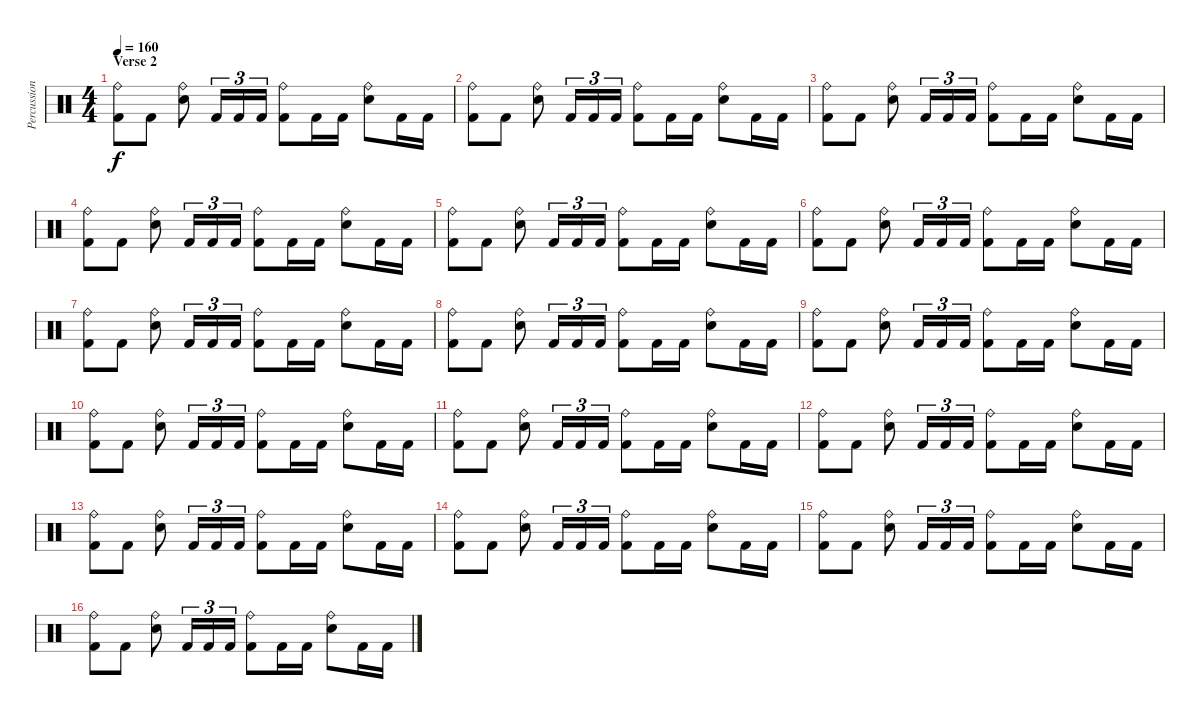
\track ("Percussion" "Percussion") {instrument percussion}
\staff {score}
\articulation defaults
\ts (4 4)
\section ("" "Verse 2")
\tempo 160
\clef neutral
\ks c
("Kick (hit) 2" "Ride (bell)").8{dy f} "Kick (hit) 2".8 ("Electric Snare (hit)" "Ride (bell)").8 "Kick (hit) 2".16{tu (3 2)} "Kick (hit) 2".16{tu (3 2)} "Kick (hit) 2".16{tu (3 2)} ("Kick (hit) 2" "Ride (bell)").8 "Kick (hit) 2".16 "Kick (hit) 2".16 ("Electric Snare (hit)" "Ride (bell)").8 "Kick (hit) 2".16 "Kick (hit) 2".16 |
("Kick (hit) 2" "Ride (bell)").8 "Kick (hit) 2".8 ("Electric Snare (hit)" "Ride (bell)").8 "Kick (hit) 2".16{tu (3 2)} "Kick (hit) 2".16{tu (3 2)} "Kick (hit) 2".16{tu (3 2)} ("Kick (hit) 2" "Ride (bell)").8 "Kick (hit) 2".16 "Kick (hit) 2".16 ("Electric Snare (hit)" "Ride (bell)").8 "Kick (hit) 2".16 "Kick (hit) 2".16 |
("Kick (hit) 2" "Ride (bell)").8 "Kick (hit) 2".8 ("Electric Snare (hit)" "Ride (bell)").8 "Kick (hit) 2".16{tu (3 2)} "Kick (hit) 2".16{tu (3 2)} "Kick (hit) 2".16{tu (3 2)} ("Kick (hit) 2" "Ride (bell)").8 "Kick (hit) 2".16 "Kick (hit) 2".16 ("Electric Snare (hit)" "Ride (bell)").8 "Kick (hit) 2".16 "Kick (hit) 2".16 |
("Kick (hit) 2" "Ride (bell)").8 "Kick (hit) 2".8 ("Electric Snare (hit)" "Ride (bell)").8 "Kick (hit) 2".16{tu (3 2)} "Kick (hit) 2".16{tu (3 2)} "Kick (hit) 2".16{tu (3 2)} ("Kick (hit) 2" "Ride (bell)").8 "Kick (hit) 2".16 "Kick (hit) 2".16 ("Electric Snare (hit)" "Ride (bell)").8 "Kick (hit) 2".16 "Kick (hit) 2".16 |
("Kick (hit) 2" "Ride (bell)").8 "Kick (hit) 2".8 ("Electric Snare (hit)" "Ride (bell)").8 "Kick (hit) 2".16{tu (3 2)} "Kick (hit) 2".16{tu (3 2)} "Kick (hit) 2".16{tu (3 2)} ("Kick (hit) 2" "Ride (bell)").8 "Kick (hit) 2".16 "Kick (hit) 2".16 ("Electric Snare (hit)" "Ride (bell)").8 "Kick (hit) 2".16 "Kick (hit) 2".16 |
("Kick (hit) 2" "Ride (bell)").8 "Kick (hit) 2".8 ("Electric Snare (hit)" "Ride (bell)").8 "Kick (hit) 2".16{tu (3 2)} "Kick (hit) 2".16{tu (3 2)} "Kick (hit) 2".16{tu (3 2)} ("Kick (hit) 2" "Ride (bell)").8 "Kick (hit) 2".16 "Kick (hit) 2".16 ("Electric Snare (hit)" "Ride (bell)").8 "Kick (hit) 2".16 "Kick (hit) 2".16 |
("Kick (hit) 2" "Ride (bell)").8 "Kick (hit) 2".8 ("Electric Snare (hit)" "Ride (bell)").8 "Kick (hit) 2".16{tu (3 2)} "Kick (hit) 2".16{tu (3 2)} "Kick (hit) 2".16{tu (3 2)} ("Kick (hit) 2" "Ride (bell)").8 "Kick (hit) 2".16 "Kick (hit) 2".16 ("Electric Snare (hit)" "Ride (bell)").8 "Kick (hit) 2".16 "Kick (hit) 2".16 |
("Kick (hit) 2" "Ride (bell)").8 "Kick (hit) 2".8 ("Electric Snare (hit)" "Ride (bell)").8 "Kick (hit) 2".16{tu (3 2)} "Kick (hit) 2".16{tu (3 2)} "Kick (hit) 2".16{tu (3 2)} ("Kick (hit) 2" "Ride (bell)").8 "Kick (hit) 2".16 "Kick (hit) 2".16 ("Electric Snare (hit)" "Ride (bell)").8 "Kick (hit) 2".16 "Kick (hit) 2".16 |
("Kick (hit) 2" "Ride (bell)").8 "Kick (hit) 2".8 ("Electric Snare (hit)" "Ride (bell)").8 "Kick (hit) 2".16{tu (3 2)} "Kick (hit) 2".16{tu (3 2)} "Kick (hit) 2".16{tu (3 2)} ("Kick (hit) 2" "Ride (bell)").8 "Kick (hit) 2".16 "Kick (hit) 2".16 ("Electric Snare (hit)" "Ride (bell)").8 "Kick (hit) 2".16 "Kick (hit) 2".16 |
("Kick (hit) 2" "Ride (bell)").8 "Kick (hit) 2".8 ("Electric Snare (hit)" "Ride (bell)").8 "Kick (hit) 2".16{tu (3 2)} "Kick (hit) 2".16{tu (3 2)} "Kick (hit) 2".16{tu (3 2)} ("Kick (hit) 2" "Ride (bell)").8 "Kick (hit) 2".16 "Kick (hit) 2".16 ("Electric Snare (hit)" "Ride (bell)").8 "Kick (hit) 2".16 "Kick (hit) 2".16 |
("Kick (hit) 2" "Ride (bell)").8 "Kick (hit) 2".8 ("Electric Snare (hit)" "Ride (bell)").8 "Kick (hit) 2".16{tu (3 2)} "Kick (hit) 2".16{tu (3 2)} "Kick (hit) 2".16{tu (3 2)} ("Kick (hit) 2" "Ride (bell)").8 "Kick (hit) 2".16 "Kick (hit) 2".16 ("Electric Snare (hit)" "Ride (bell)").8 "Kick (hit) 2".16 "Kick (hit) 2".16 |
("Kick (hit) 2" "Ride (bell)").8 "Kick (hit) 2".8 ("Electric Snare (hit)" "Ride (bell)").8 "Kick (hit) 2".16{tu (3 2)} "Kick (hit) 2".16{tu (3 2)} "Kick (hit) 2".16{tu (3 2)} ("Kick (hit) 2" "Ride (bell)").8 "Kick (hit) 2".16 "Kick (hit) 2".16 ("Electric Snare (hit)" "Ride (bell)").8 "Kick (hit) 2".16 "Kick (hit) 2".16 |
("Kick (hit) 2" "Ride (bell)").8 "Kick (hit) 2".8 ("Electric Snare (hit)" "Ride (bell)").8 "Kick (hit) 2".16{tu (3 2)} "Kick (hit) 2".16{tu (3 2)} "Kick (hit) 2".16{tu (3 2)} ("Kick (hit) 2" "Ride (bell)").8 "Kick (hit) 2".16 "Kick (hit) 2".16 ("Electric Snare (hit)" "Ride (bell)").8 "Kick (hit) 2".16 "Kick (hit) 2".16 |
("Kick (hit) 2" "Ride (bell)").8 "Kick (hit) 2".8 ("Electric Snare (hit)" "Ride (bell)").8 "Kick (hit) 2".16{tu (3 2)} "Kick (hit) 2".16{tu (3 2)} "Kick (hit) 2".16{tu (3 2)} ("Kick (hit) 2" "Ride (bell)").8 "Kick (hit) 2".16 "Kick (hit) 2".16 ("Electric Snare (hit)" "Ride (bell)").8 "Kick (hit) 2".16 "Kick (hit) 2".16 |
("Kick (hit) 2" "Ride (bell)").8 "Kick (hit) 2".8 ("Electric Snare (hit)" "Ride (bell)").8 "Kick (hit) 2".16{tu (3 2)} "Kick (hit) 2".16{tu (3 2)} "Kick (hit) 2".16{tu (3 2)} ("Kick (hit) 2" "Ride (bell)").8 "Kick (hit) 2".16 "Kick (hit) 2".16 ("Electric Snare (hit)" "Ride (bell)").8 "Kick (hit) 2".16 "Kick (hit) 2".16 |
("Kick (hit) 2" "Ride (bell)").8 "Kick (hit) 2".8 ("Electric Snare (hit)" "Ride (bell)").8 "Kick (hit) 2".16{tu (3 2)} "Kick (hit) 2".16{tu (3 2)} "Kick (hit) 2".16{tu (3 2)} ("Kick (hit) 2" "Ride (bell)").8 "Kick (hit) 2".16 "Kick (hit) 2".16 ("Electric Snare (hit)" "Ride (bell)").8 "Kick (hit) 2".16 "Kick (hit) 2".16
